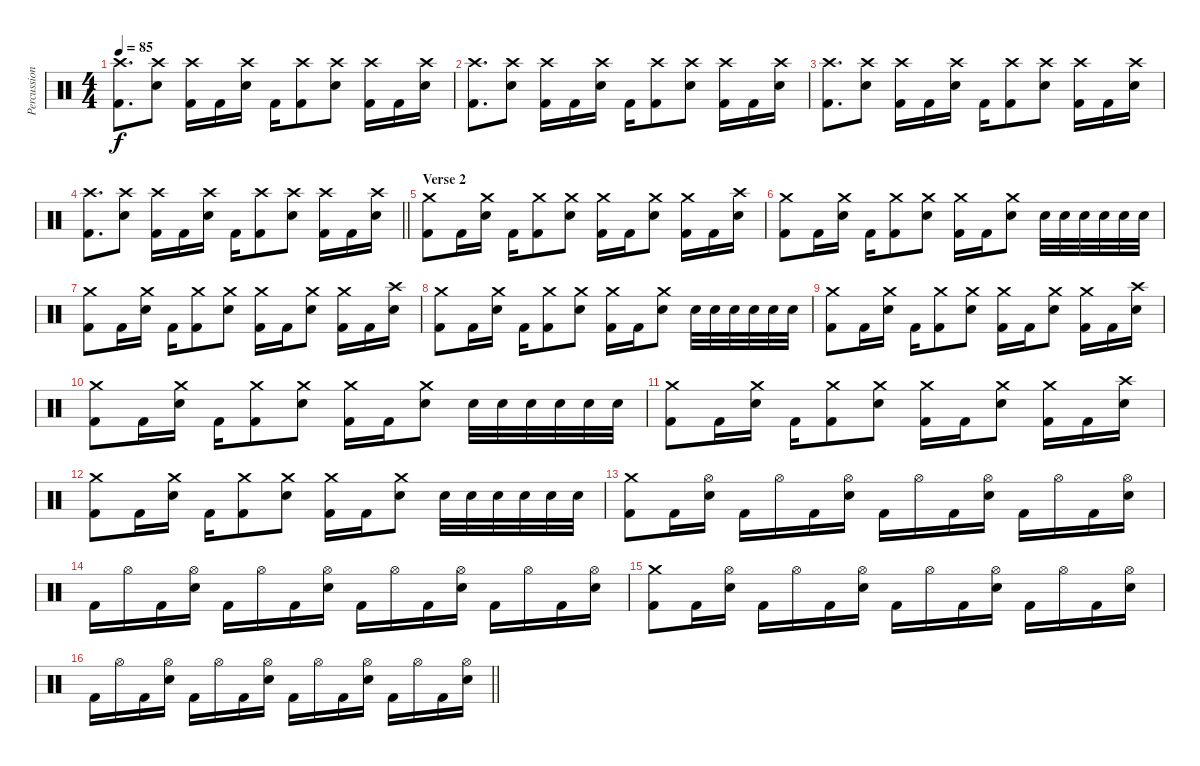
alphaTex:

\track ("Percussion" "Percussion") {instrument percussion}
\staff {score}
\articulation defaults
\ts (4 4)
\tempo 85
\clef neutral
\ks c
("Crash high (hit)" "Kick (hit) 2").8{d dy f} ("Crash high (hit)" "Electric Snare (hit)").8 ("Crash high (hit)" "Kick (hit) 2").16 "Kick (hit) 2".16 ("Crash high (hit)" "Electric Snare (hit)").16 "Kick (hit) 2".16 ("Crash high (hit)" "Kick (hit) 2").8 ("Crash high (hit)" "Electric Snare (hit)").8 ("Crash high (hit)" "Kick (hit) 2").16 "Kick (hit) 2".16 ("Crash high (hit)" "Electric Snare (hit)").16 |
("Crash high (hit)" "Kick (hit) 2").8{d} ("Crash high (hit)" "Electric Snare (hit)").8 ("Crash high (hit)" "Kick (hit) 2").16 "Kick (hit) 2".16 ("Crash high (hit)" "Electric Snare (hit)").16 "Kick (hit) 2".16 ("Crash high (hit)" "Kick (hit) 2").8 ("Crash high (hit)" "Electric Snare (hit)").8 ("Crash high (hit)" "Kick (hit) 2").16 "Kick (hit) 2".16 ("Crash high (hit)" "Electric Snare (hit)").16 |
("Crash high (hit)" "Kick (hit) 2").8{d} ("Crash high (hit)" "Electric Snare (hit)").8 ("Crash high (hit)" "Kick (hit) 2").16 "Kick (hit) 2".16 ("Crash high (hit)" "Electric Snare (hit)").16 "Kick (hit) 2".16 ("Crash high (hit)" "Kick (hit) 2").8 ("Crash high (hit)" "Electric Snare (hit)").8 ("Crash high (hit)" "Kick (hit) 2").16 "Kick (hit) 2".16 ("Crash high (hit)" "Electric Snare (hit)").16 |
\barLineRight lightlight
("Crash high (hit)" "Kick (hit) 2").8{d} ("Crash high (hit)" "Electric Snare (hit)").8 ("Crash high (hit)" "Kick (hit) 2").16 "Kick (hit) 2".16 ("Crash high (hit)" "Electric Snare (hit)").16 "Kick (hit) 2".16 ("Crash high (hit)" "Kick (hit) 2").8 ("Crash high (hit)" "Electric Snare (hit)").8 ("Crash high (hit)" "Kick (hit) 2").16 "Kick (hit) 2".16 ("Crash high (hit)" "Electric Snare (hit)").16 |
\section ("" "Verse 2")
("Crash medium (hit)" "Kick (hit) 2").8 "Kick (hit) 2".16 ("Crash medium (hit)" "Electric Snare (hit)").16 "Kick (hit) 2".16 ("Crash medium (hit)" "Kick (hit) 2").8 ("Crash medium (hit)" "Electric Snare (hit)").8 ("Crash medium (hit)" "Kick (hit) 2").16 "Kick (hit) 2".16 ("Crash medium (hit)" "Electric Snare (hit)").8 ("Crash medium (hit)" "Kick (hit) 2").16 "Kick (hit) 2".16 ("Crash high (hit)" "Electric Snare (hit)").16 |
("Crash medium (hit)" "Kick (hit) 2").8 "Kick (hit) 2".16 ("Crash medium (hit)" "Electric Snare (hit)").16 "Kick (hit) 2".16 ("Crash medium (hit)" "Kick (hit) 2").8 ("Crash medium (hit)" "Electric Snare (hit)").8 ("Crash medium (hit)" "Kick (hit) 2").16 "Kick (hit) 2".16 ("Crash medium (hit)" "Electric Snare (hit)").8 "Electric Snare (hit)".32 "Electric Snare (hit)".32 "Electric Snare (hit)".32 "Electric Snare (hit)".32 "Electric Snare (hit)".32 "Electric Snare (hit)".32 |
("Crash medium (hit)" "Kick (hit) 2").8 "Kick (hit) 2".16 ("Crash medium (hit)" "Electric Snare (hit)").16 "Kick (hit) 2".16 ("Crash medium (hit)" "Kick (hit) 2").8 ("Crash medium (hit)" "Electric Snare (hit)").8 ("Crash medium (hit)" "Kick (hit) 2").16 "Kick (hit) 2".16 ("Crash medium (hit)" "Electric Snare (hit)").8 ("Crash medium (hit)" "Kick (hit) 2").16 "Kick (hit) 2".16 ("Crash high (hit)" "Electric Snare (hit)").16 |
("Crash medium (hit)" "Kick (hit) 2").8 "Kick (hit) 2".16 ("Crash medium (hit)" "Electric Snare (hit)").16 "Kick (hit) 2".16 ("Crash medium (hit)" "Kick (hit) 2").8 ("Crash medium (hit)" "Electric Snare (hit)").8 ("Crash medium (hit)" "Kick (hit) 2").16 "Kick (hit) 2".16 ("Crash medium (hit)" "Electric Snare (hit)").8 "Electric Snare (hit)".32 "Electric Snare (hit)".32 "Electric Snare (hit)".32 "Electric Snare (hit)".32 "Electric Snare (hit)".32 "Electric Snare (hit)".32 |
("Crash medium (hit)" "Kick (hit) 2").8 "Kick (hit) 2".16 ("Crash medium (hit)" "Electric Snare (hit)").16 "Kick (hit) 2".16 ("Crash medium (hit)" "Kick (hit) 2").8 ("Crash medium (hit)" "Electric Snare (hit)").8 ("Crash medium (hit)" "Kick (hit) 2").16 "Kick (hit) 2".16 ("Crash medium (hit)" "Electric Snare (hit)").8 ("Crash medium (hit)" "Kick (hit) 2").16 "Kick (hit) 2".16 ("Crash high (hit)" "Electric Snare (hit)").16 |
("Crash medium (hit)" "Kick (hit) 2").8 "Kick (hit) 2".16 ("Crash medium (hit)" "Electric Snare (hit)").16 "Kick (hit) 2".16 ("Crash medium (hit)" "Kick (hit) 2").8 ("Crash medium (hit)" "Electric Snare (hit)").8 ("Crash medium (hit)" "Kick (hit) 2").16 "Kick (hit) 2".16 ("Crash medium (hit)" "Electric Snare (hit)").8 "Electric Snare (hit)".32 "Electric Snare (hit)".32 "Electric Snare (hit)".32 "Electric Snare (hit)".32 "Electric Snare (hit)".32 "Electric Snare (hit)".32 |
("Crash medium (hit)" "Kick (hit) 2").8 "Kick (hit) 2".16 ("Crash medium (hit)" "Electric Snare (hit)").16 "Kick (hit) 2".16 ("Crash medium (hit)" "Kick (hit) 2").8 ("Crash medium (hit)" "Electric Snare (hit)").8 ("Crash medium (hit)" "Kick (hit) 2").16 "Kick (hit) 2".16 ("Crash medium (hit)" "Electric Snare (hit)").8 ("Crash medium (hit)" "Kick (hit) 2").16 "Kick (hit) 2".16 ("Crash high (hit)" "Electric Snare (hit)").16 |
("Crash medium (hit)" "Kick (hit) 2").8 "Kick (hit) 2".16 ("Crash medium (hit)" "Electric Snare (hit)").16 "Kick (hit) 2".16 ("Crash medium (hit)" "Kick (hit) 2").8 ("Crash medium (hit)" "Electric Snare (hit)").8 ("Crash medium (hit)" "Kick (hit) 2").16 "Kick (hit) 2".16 ("Crash medium (hit)" "Electric Snare (hit)").8 "Electric Snare (hit)".32 "Electric Snare (hit)".32 "Electric Snare (hit)".32 "Electric Snare (hit)".32 "Electric Snare (hit)".32 "Electric Snare (hit)".32 |
("Crash medium (hit)" "Kick (hit) 2").8 "Kick (hit) 2".16 ("Hi-Hat (open)" "Electric Snare (hit)").16 "Kick (hit) 2".16 "Hi-Hat (open)".16 "Kick (hit) 2".16 ("Hi-Hat (open)" "Electric Snare (hit)").16 "Kick (hit) 2".16 "Hi-Hat (open)".16 "Kick (hit) 2".16 ("Hi-Hat (open)" "Electric Snare (hit)").16 "Kick (hit) 2".16 "Hi-Hat (open)".16 "Kick (hit) 2".16 ("Hi-Hat (open)" "Electric Snare (hit)").16 |
"Kick (hit) 2".16 "Hi-Hat (open)".16 "Kick (hit) 2".16 ("Hi-Hat (open)" "Electric Snare (hit)").16 "Kick (hit) 2".16 "Hi-Hat (open)".16 "Kick (hit) 2".16 ("Hi-Hat (open)" "Electric Snare (hit)").16 "Kick (hit) 2".16 "Hi-Hat (open)".16 "Kick (hit) 2".16 ("Hi-Hat (open)" "Electric Snare (hit)").16 "Kick (hit) 2".16 "Hi-Hat (open)".16 "Kick (hit) 2".16 ("Hi-Hat (open)" "Electric Snare (hit)").16 |
("Crash medium (hit)" "Kick (hit) 2").8 "Kick (hit) 2".16 ("Hi-Hat (open)" "Electric Snare (hit)").16 "Kick (hit) 2".16 "Hi-Hat (open)".16 "Kick (hit) 2".16 ("Hi-Hat (open)" "Electric Snare (hit)").16 "Kick (hit) 2".16 "Hi-Hat (open)".16 "Kick (hit) 2".16 ("Hi-Hat (open)" "Electric Snare (hit)").16 "Kick (hit) 2".16 "Hi-Hat (open)".16 "Kick (hit) 2".16 ("Hi-Hat (open)" "Electric Snare (hit)").16 |
\barLineRight lightlight "Kick (hit) 2".16 "Hi-Hat (open)".16 "Kick (hit) 2".16
("Hi-Hat (open)" "Electric Snare (hit)").16 "Kick (hit) 2".16 "Hi-Hat (open)".16 "Kick (hit) 2".16 ("Hi-Hat (open)" "Electric Snare (hit)").16 "Kick (hit) 2".16 "Hi-Hat (open)".16 "Kick (hit) 2".16 ("Hi-Hat (open)" "Electric Snare (hit)").16 "Kick (hit) 2".16 "Hi-Hat (open)".16 "Kick (hit) 2".16 ("Hi-Hat (open)" "Electric Snare (hit)").16
